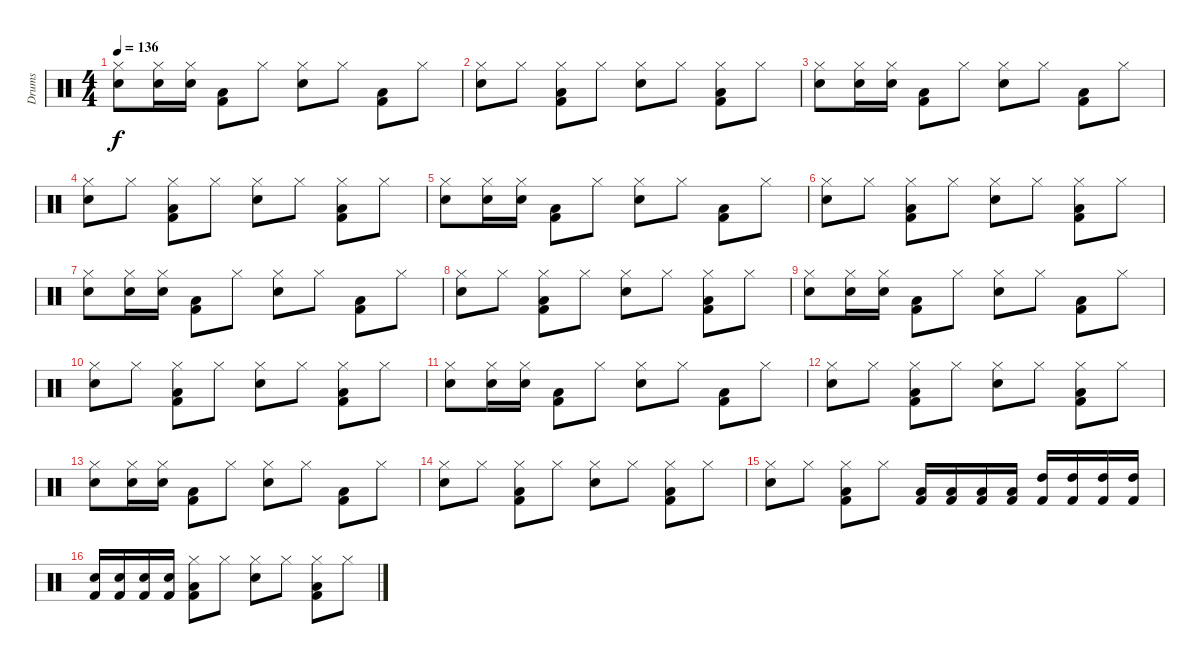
\track ("Drums" "Drums") {instrument percussion}
\staff {score}
\articulation defaults
\ts (4 4)
\tempo 136
\clef neutral
\ks c
("Hi-Hat (closed)" "Snare (hit) 2").8{dy f} ("Hi-Hat (closed)" "Snare (hit) 2").16 ("Hi-Hat (closed)" "Snare (hit) 2").16 ("Kick (hit) 2" "Low Floor Tom (hit)").8 "Hi-Hat (closed)".8 ("Hi-Hat (closed)" "Snare (hit) 2").8 "Hi-Hat (closed)".8 ("Kick (hit) 2" "Low Floor Tom (hit)").8 "Hi-Hat (closed)".8 |
("Hi-Hat (closed)" "Snare (hit) 2").8 "Hi-Hat (closed)".8 ("Kick (hit) 2" "Low Floor Tom (hit)" "Hi-Hat (closed)").8 "Hi-Hat (closed)".8 ("Hi-Hat (closed)" "Snare (hit) 2").8 "Hi-Hat (closed)".8 ("Kick (hit) 2" "Low Floor Tom (hit)" "Hi-Hat (closed)").8 "Hi-Hat (closed)".8 |
("Hi-Hat (closed)" "Snare (hit) 2").8 ("Hi-Hat (closed)" "Snare (hit) 2").16 ("Hi-Hat (closed)" "Snare (hit) 2").16 ("Kick (hit) 2" "Low Floor Tom (hit)").8 "Hi-Hat (closed)".8 ("Hi-Hat (closed)" "Snare (hit) 2").8 "Hi-Hat (closed)".8 ("Kick (hit) 2" "Low Floor Tom (hit)").8 "Hi-Hat (closed)".8 |
("Hi-Hat (closed)" "Snare (hit) 2").8 "Hi-Hat (closed)".8 ("Kick (hit) 2" "Low Floor Tom (hit)" "Hi-Hat (closed)").8 "Hi-Hat (closed)".8 ("Hi-Hat (closed)" "Snare (hit) 2").8 "Hi-Hat (closed)".8 ("Kick (hit) 2" "Low Floor Tom (hit)" "Hi-Hat (closed)").8 "Hi-Hat (closed)".8 |
("Hi-Hat (closed)" "Snare (hit) 2").8 ("Hi-Hat (closed)" "Snare (hit) 2").16 ("Hi-Hat (closed)" "Snare (hit) 2").16 ("Kick (hit) 2" "Low Floor Tom (hit)").8 "Hi-Hat (closed)".8 ("Hi-Hat (closed)" "Snare (hit) 2").8 "Hi-Hat (closed)".8 ("Kick (hit) 2" "Low Floor Tom (hit)").8 "Hi-Hat (closed)".8 |
("Hi-Hat (closed)" "Snare (hit) 2").8 "Hi-Hat (closed)".8 ("Kick (hit) 2" "Low Floor Tom (hit)" "Hi-Hat (closed)").8 "Hi-Hat (closed)".8 ("Hi-Hat (closed)" "Snare (hit) 2").8 "Hi-Hat (closed)".8 ("Kick (hit) 2" "Low Floor Tom (hit)" "Hi-Hat (closed)").8 "Hi-Hat (closed)".8 |
("Hi-Hat (closed)" "Snare (hit) 2").8 ("Hi-Hat (closed)" "Snare (hit) 2").16 ("Hi-Hat (closed)" "Snare (hit) 2").16 ("Kick (hit) 2" "Low Floor Tom (hit)").8 "Hi-Hat (closed)".8 ("Hi-Hat (closed)" "Snare (hit) 2").8 "Hi-Hat (closed)".8 ("Kick (hit) 2" "Low Floor Tom (hit)").8 "Hi-Hat (closed)".8 |
("Hi-Hat (closed)" "Snare (hit) 2").8 "Hi-Hat (closed)".8 ("Kick (hit) 2" "Low Floor Tom (hit)" "Hi-Hat (closed)").8 "Hi-Hat (closed)".8 ("Hi-Hat (closed)" "Snare (hit) 2").8 "Hi-Hat (closed)".8 ("Kick (hit) 2" "Low Floor Tom (hit)" "Hi-Hat (closed)").8 "Hi-Hat (closed)".8 |
("Hi-Hat (closed)" "Snare (hit) 2").8 ("Hi-Hat (closed)" "Snare (hit) 2").16 ("Hi-Hat (closed)" "Snare (hit) 2").16 ("Kick (hit) 2" "Low Floor Tom (hit)").8 "Hi-Hat (closed)".8 ("Hi-Hat (closed)" "Snare (hit) 2").8 "Hi-Hat (closed)".8 ("Kick (hit) 2" "Low Floor Tom (hit)").8 "Hi-Hat (closed)".8 |
("Hi-Hat (closed)" "Snare (hit) 2").8 "Hi-Hat (closed)".8 ("Kick (hit) 2" "Low Floor Tom (hit)" "Hi-Hat (closed)").8 "Hi-Hat (closed)".8 ("Hi-Hat (closed)" "Snare (hit) 2").8 "Hi-Hat (closed)".8 ("Kick (hit) 2" "Low Floor Tom (hit)" "Hi-Hat (closed)").8 "Hi-Hat (closed)".8 |
("Hi-Hat (closed)" "Snare (hit) 2").8 ("Hi-Hat (closed)" "Snare (hit) 2").16 ("Hi-Hat (closed)" "Snare (hit) 2").16 ("Kick (hit) 2" "Low Floor Tom (hit)").8 "Hi-Hat (closed)".8 ("Hi-Hat (closed)" "Snare (hit) 2").8 "Hi-Hat (closed)".8 ("Kick (hit) 2" "Low Floor Tom (hit)").8 "Hi-Hat (closed)".8 |
("Hi-Hat (closed)" "Snare (hit) 2").8 "Hi-Hat (closed)".8 ("Kick (hit) 2" "Low Floor Tom (hit)" "Hi-Hat (closed)").8 "Hi-Hat (closed)".8 ("Hi-Hat (closed)" "Snare (hit) 2").8 "Hi-Hat (closed)".8 ("Kick (hit) 2" "Low Floor Tom (hit)" "Hi-Hat (closed)").8 "Hi-Hat (closed)".8 |
("Hi-Hat (closed)" "Snare (hit) 2").8 ("Hi-Hat (closed)" "Snare (hit) 2").16 ("Hi-Hat (closed)" "Snare (hit) 2").16 ("Kick (hit) 2" "Low Floor Tom (hit)").8 "Hi-Hat (closed)".8 ("Hi-Hat (closed)" "Snare (hit) 2").8 "Hi-Hat (closed)".8 ("Kick (hit) 2" "Low Floor Tom (hit)").8 "Hi-Hat (closed)".8 |
("Hi-Hat (closed)" "Snare (hit) 2").8 "Hi-Hat (closed)".8 ("Kick (hit) 2" "Low Floor Tom (hit)" "Hi-Hat (closed)").8 "Hi-Hat (closed)".8 ("Hi-Hat (closed)" "Snare (hit) 2").8 "Hi-Hat (closed)".8 ("Kick (hit) 2" "Low Floor Tom (hit)" "Hi-Hat (closed)").8 "Hi-Hat (closed)".8 |
("Hi-Hat (closed)" "Snare (hit) 2").8 "Hi-Hat (closed)".8 ("Kick (hit) 2" "Low Floor Tom (hit)" "Hi-Hat (closed)").8 "Hi-Hat (closed)".8 ("Kick (hit) 2" "Low Floor Tom (hit)").16 ("Kick (hit) 2" "Low Floor Tom (hit)").16 ("Kick (hit) 2" "Low Floor Tom (hit)").16 ("Kick (hit) 2" "Low Floor Tom (hit)").16 ("Kick (hit) 2" "High Tom (hit)").16 ("Kick (hit) 2" "High Tom (hit)").16 ("Kick (hit) 2" "High Tom (hit)").16 ("Kick (hit) 2" "High Tom (hit)").16 |
("Kick (hit) 2" "Snare (hit) 2").16 ("Kick (hit) 2" "Snare (hit) 2").16 ("Kick (hit) 2" "Snare (hit) 2").16 ("Kick (hit) 2" "Snare (hit) 2").16 ("Kick (hit) 2" "Low Floor Tom (hit)" "Hi-Hat (closed)").8 "Hi-Hat (closed)".8 ("Hi-Hat (closed)" "Snare (hit) 2").8 "Hi-Hat (closed)".8 ("Kick (hit) 2" "Low Floor Tom (hit)" "Hi-Hat (closed)").8 "Hi-Hat (closed)".8
